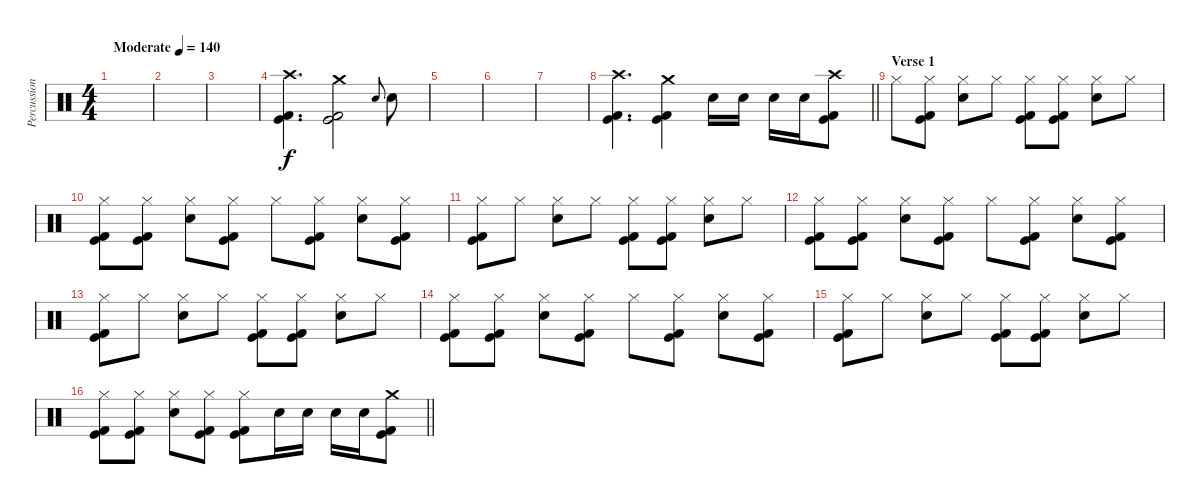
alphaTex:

\track ("Percussion" "Percussion") {instrument percussion}
\staff {score}
\articulation defaults
\ts (4 4)
\tempo (140 "Moderate")
\clef neutral
\ks c
|
|
|
("Crash high (hit)" "Kick (hit)" "Kick (hit) 2").4{d} ("Crash medium (hit)" "Kick (hit)" "Kick (hit) 2").2 "Electric Snare (hit)".8{gr onbeat} "Electric Snare (hit)".8 |
|
|
|
\barLineRight lightlight
("Crash high (hit)" "Kick (hit)" "Kick (hit) 2").4{d} ("Crash medium (hit)" "Kick (hit)" "Kick (hit) 2").4 "Electric Snare (hit)".16 "Electric Snare (hit)".16 "Electric Snare (hit)".16 "Electric Snare (hit)".16 ("Crash high (hit)" "Kick (hit)" "Kick (hit) 2").8 |
\section ("" "Verse 1")
"Hi-Hat (closed)".8 ("Hi-Hat (closed)" "Kick (hit)" "Kick (hit) 2").8 ("Hi-Hat (closed)" "Electric Snare (hit)").8 "Hi-Hat (closed)".8 ("Hi-Hat (closed)" "Kick (hit)" "Kick (hit) 2").8 ("Hi-Hat (closed)" "Kick (hit)" "Kick (hit) 2").8 ("Hi-Hat (closed)" "Electric Snare (hit)").8 "Hi-Hat (closed)".8 |
("Hi-Hat (closed)" "Kick (hit)" "Kick (hit) 2").8 ("Hi-Hat (closed)" "Kick (hit)" "Kick (hit) 2").8 ("Hi-Hat (closed)" "Electric Snare (hit)").8 ("Hi-Hat (closed)" "Kick (hit)" "Kick (hit) 2").8 "Hi-Hat (closed)".8 ("Hi-Hat (closed)" "Kick (hit)" "Kick (hit) 2").8 ("Hi-Hat (closed)" "Electric Snare (hit)").8 ("Hi-Hat (closed)" "Kick (hit)" "Kick (hit) 2").8 |
("Hi-Hat (closed)" "Kick (hit)" "Kick (hit) 2").8 "Hi-Hat (closed)".8 ("Hi-Hat (closed)" "Electric Snare (hit)").8 "Hi-Hat (closed)".8 ("Hi-Hat (closed)" "Kick (hit)" "Kick (hit) 2").8 ("Hi-Hat (closed)" "Kick (hit)" "Kick (hit) 2").8 ("Hi-Hat (closed)" "Electric Snare (hit)").8 "Hi-Hat (closed)".8 |
("Hi-Hat (closed)" "Kick (hit)" "Kick (hit) 2").8 ("Hi-Hat (closed)" "Kick (hit)" "Kick (hit) 2").8 ("Hi-Hat (closed)" "Electric Snare (hit)").8 ("Hi-Hat (closed)" "Kick (hit)" "Kick (hit) 2").8 "Hi-Hat (closed)".8 ("Hi-Hat (closed)" "Kick (hit)" "Kick (hit) 2").8 ("Hi-Hat (closed)" "Electric Snare (hit)").8 ("Hi-Hat (closed)" "Kick (hit)" "Kick (hit) 2").8 |
("Hi-Hat (closed)" "Kick (hit)" "Kick (hit) 2").8 "Hi-Hat (closed)".8 ("Hi-Hat (closed)" "Electric Snare (hit)").8 "Hi-Hat (closed)".8 ("Hi-Hat (closed)" "Kick (hit)" "Kick (hit) 2").8 ("Hi-Hat (closed)" "Kick (hit)" "Kick (hit) 2").8 ("Hi-Hat (closed)" "Electric Snare (hit)").8 "Hi-Hat (closed)".8 |
("Hi-Hat (closed)" "Kick (hit)" "Kick (hit) 2").8 ("Hi-Hat (closed)" "Kick (hit)" "Kick (hit) 2").8 ("Hi-Hat (closed)" "Electric Snare (hit)").8 ("Hi-Hat (closed)" "Kick (hit)" "Kick (hit) 2").8 "Hi-Hat (closed)".8 ("Hi-Hat (closed)" "Kick (hit)" "Kick (hit) 2").8 ("Hi-Hat (closed)" "Electric Snare (hit)").8 ("Hi-Hat (closed)" "Kick (hit)" "Kick (hit) 2").8 |
("Hi-Hat (closed)" "Kick (hit)" "Kick (hit) 2").8 "Hi-Hat (closed)".8 ("Hi-Hat (closed)" "Electric Snare (hit)").8 "Hi-Hat (closed)".8 ("Hi-Hat (closed)" "Kick (hit)" "Kick (hit) 2").8 ("Hi-Hat (closed)" "Kick (hit)" "Kick (hit) 2").8 ("Hi-Hat (closed)" "Electric Snare (hit)").8 "Hi-Hat (closed)".8 |
\barLineRight lightlight
("Hi-Hat (closed)" "Kick (hit)" "Kick (hit) 2").8 ("Hi-Hat (closed)" "Kick (hit)" "Kick (hit) 2").8 ("Hi-Hat (closed)" "Electric Snare (hit)").8 ("Hi-Hat (closed)" "Kick (hit)" "Kick (hit) 2").8 ("Hi-Hat (closed)" "Kick (hit)" "Kick (hit) 2").8 "Electric Snare (hit)".16 "Electric Snare (hit)".16 "Electric Snare (hit)".16 "Electric Snare (hit)".16 ("Crash medium (hit)" "Kick (hit)" "Kick (hit) 2").8
